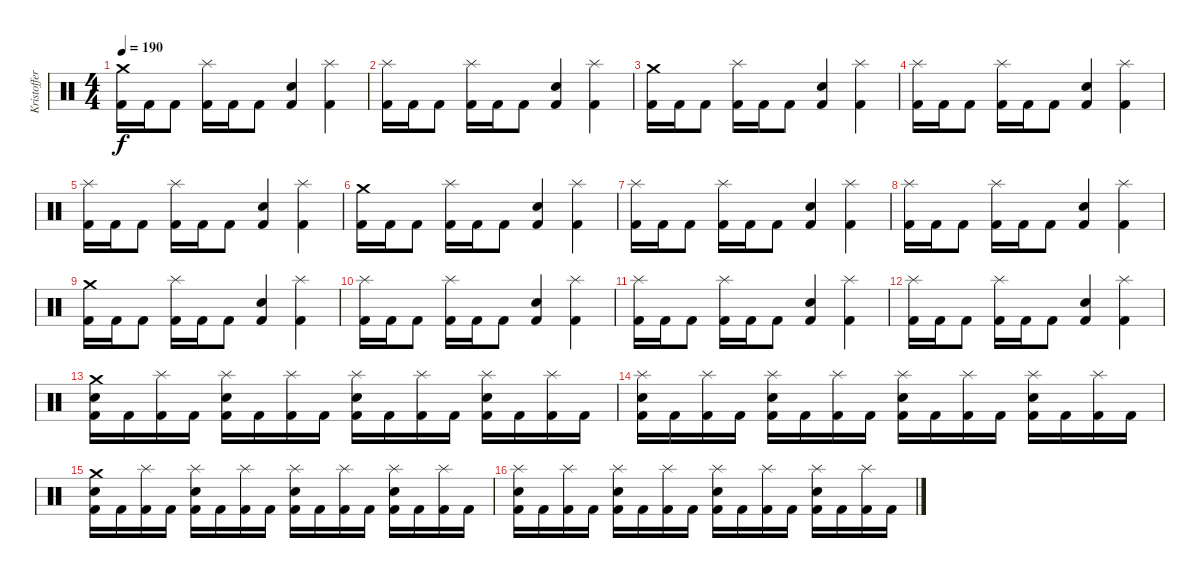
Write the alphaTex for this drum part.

\track ("Kristoffer (Drums)" "Kristoffer") {instrument percussion}
\staff {score}
\articulation defaults
\ts (4 4)
\tempo 190
\clef neutral
\ks c
("Kick (hit) 2" "Crash medium (hit)").16{dy f} "Kick (hit) 2".16 "Kick (hit) 2".8 ("Kick (hit) 2" "Splash (hit)").16 "Kick (hit) 2".16 "Kick (hit) 2".8 ("Kick (hit) 2" "Electric Snare (hit)").4 ("Kick (hit) 2" "Splash (hit)").4 |
("Kick (hit) 2" "Splash (hit)").16 "Kick (hit) 2".16 "Kick (hit) 2".8 ("Kick (hit) 2" "Splash (hit)").16 "Kick (hit) 2".16 "Kick (hit) 2".8 ("Kick (hit) 2" "Electric Snare (hit)").4 ("Kick (hit) 2" "Splash (hit)").4 |
("Kick (hit) 2" "Crash medium (hit)").16 "Kick (hit) 2".16 "Kick (hit) 2".8 ("Kick (hit) 2" "Splash (hit)").16 "Kick (hit) 2".16 "Kick (hit) 2".8 ("Kick (hit) 2" "Electric Snare (hit)").4 ("Kick (hit) 2" "Splash (hit)").4 |
("Kick (hit) 2" "Splash (hit)").16 "Kick (hit) 2".16 "Kick (hit) 2".8 ("Kick (hit) 2" "Splash (hit)").16 "Kick (hit) 2".16 "Kick (hit) 2".8 ("Kick (hit) 2" "Electric Snare (hit)").4 ("Kick (hit) 2" "Splash (hit)").4 |
("Kick (hit) 2" "Splash (hit)").16 "Kick (hit) 2".16 "Kick (hit) 2".8 ("Kick (hit) 2" "Splash (hit)").16 "Kick (hit) 2".16 "Kick (hit) 2".8 ("Kick (hit) 2" "Electric Snare (hit)").4 ("Kick (hit) 2" "Splash (hit)").4 |
("Kick (hit) 2" "Crash medium (hit)").16 "Kick (hit) 2".16 "Kick (hit) 2".8 ("Kick (hit) 2" "Splash (hit)").16 "Kick (hit) 2".16 "Kick (hit) 2".8 ("Kick (hit) 2" "Electric Snare (hit)").4 ("Kick (hit) 2" "Splash (hit)").4 |
("Kick (hit) 2" "Splash (hit)").16 "Kick (hit) 2".16 "Kick (hit) 2".8 ("Kick (hit) 2" "Splash (hit)").16 "Kick (hit) 2".16 "Kick (hit) 2".8 ("Kick (hit) 2" "Electric Snare (hit)").4 ("Kick (hit) 2" "Splash (hit)").4 |
("Kick (hit) 2" "Splash (hit)").16 "Kick (hit) 2".16 "Kick (hit) 2".8 ("Kick (hit) 2" "Splash (hit)").16 "Kick (hit) 2".16 "Kick (hit) 2".8 ("Kick (hit) 2" "Electric Snare (hit)").4 ("Kick (hit) 2" "Splash (hit)").4 |
("Kick (hit) 2" "Crash medium (hit)").16 "Kick (hit) 2".16 "Kick (hit) 2".8 ("Kick (hit) 2" "Splash (hit)").16 "Kick (hit) 2".16 "Kick (hit) 2".8 ("Kick (hit) 2" "Electric Snare (hit)").4 ("Kick (hit) 2" "Splash (hit)").4 |
("Kick (hit) 2" "Splash (hit)").16 "Kick (hit) 2".16 "Kick (hit) 2".8 ("Kick (hit) 2" "Splash (hit)").16 "Kick (hit) 2".16 "Kick (hit) 2".8 ("Kick (hit) 2" "Electric Snare (hit)").4 ("Kick (hit) 2" "Splash (hit)").4 |
("Kick (hit) 2" "Splash (hit)").16 "Kick (hit) 2".16 "Kick (hit) 2".8 ("Kick (hit) 2" "Splash (hit)").16 "Kick (hit) 2".16 "Kick (hit) 2".8 ("Kick (hit) 2" "Electric Snare (hit)").4 ("Kick (hit) 2" "Splash (hit)").4 |
("Kick (hit) 2" "Splash (hit)").16 "Kick (hit) 2".16 "Kick (hit) 2".8 ("Kick (hit) 2" "Splash (hit)").16 "Kick (hit) 2".16 "Kick (hit) 2".8 ("Kick (hit) 2" "Electric Snare (hit)").4 ("Kick (hit) 2" "Splash (hit)").4 |
("Kick (hit) 2" "Electric Snare (hit)" "Crash medium (hit)").16 "Kick (hit) 2".16 ("Kick (hit) 2" "Splash (hit)").16 "Kick (hit) 2".16 ("Kick (hit) 2" "Electric Snare (hit)" "Splash (hit)").16 "Kick (hit) 2".16 ("Kick (hit) 2" "Splash (hit)").16 "Kick (hit) 2".16 ("Kick (hit) 2" "Electric Snare (hit)" "Splash (hit)").16 "Kick (hit) 2".16 ("Kick (hit) 2" "Splash (hit)").16 "Kick (hit) 2".16 ("Kick (hit) 2" "Electric Snare (hit)" "Splash (hit)").16 "Kick (hit) 2".16 ("Kick (hit) 2" "Splash (hit)").16 "Kick (hit) 2".16 |
("Kick (hit) 2" "Electric Snare (hit)" "Splash (hit)").16 "Kick (hit) 2".16 ("Kick (hit) 2" "Splash (hit)").16 "Kick (hit) 2".16 ("Kick (hit) 2" "Electric Snare (hit)" "Splash (hit)").16 "Kick (hit) 2".16 ("Kick (hit) 2" "Splash (hit)").16 "Kick (hit) 2".16 ("Kick (hit) 2" "Electric Snare (hit)" "Splash (hit)").16 "Kick (hit) 2".16 ("Kick (hit) 2" "Splash (hit)").16 "Kick (hit) 2".16 ("Kick (hit) 2" "Electric Snare (hit)" "Splash (hit)").16 "Kick (hit) 2".16 ("Kick (hit) 2" "Splash (hit)").16 "Kick (hit) 2".16 |
("Kick (hit) 2" "Electric Snare (hit)" "Crash medium (hit)").16 "Kick (hit) 2".16 ("Kick (hit) 2" "Splash (hit)").16 "Kick (hit) 2".16 ("Kick (hit) 2" "Electric Snare (hit)" "Splash (hit)").16 "Kick (hit) 2".16 ("Kick (hit) 2" "Splash (hit)").16 "Kick (hit) 2".16 ("Kick (hit) 2" "Electric Snare (hit)" "Splash (hit)").16 "Kick (hit) 2".16 ("Kick (hit) 2" "Splash (hit)").16 "Kick (hit) 2".16 ("Kick (hit) 2" "Electric Snare (hit)" "Splash (hit)").16 "Kick (hit) 2".16 ("Kick (hit) 2" "Splash (hit)").16 "Kick (hit) 2".16 |
("Kick (hit) 2" "Electric Snare (hit)" "Splash (hit)").16 "Kick (hit) 2".16 ("Kick (hit) 2" "Splash (hit)").16 "Kick (hit) 2".16 ("Kick (hit) 2" "Electric Snare (hit)" "Splash (hit)").16 "Kick (hit) 2".16 ("Kick (hit) 2" "Splash (hit)").16 "Kick (hit) 2".16 ("Kick (hit) 2" "Electric Snare (hit)" "Splash (hit)").16 "Kick (hit) 2".16 ("Kick (hit) 2" "Splash (hit)").16 "Kick (hit) 2".16 ("Kick (hit) 2" "Electric Snare (hit)" "Splash (hit)").16 "Kick (hit) 2".16 ("Kick (hit) 2" "Splash (hit)").16 "Kick (hit) 2".16
